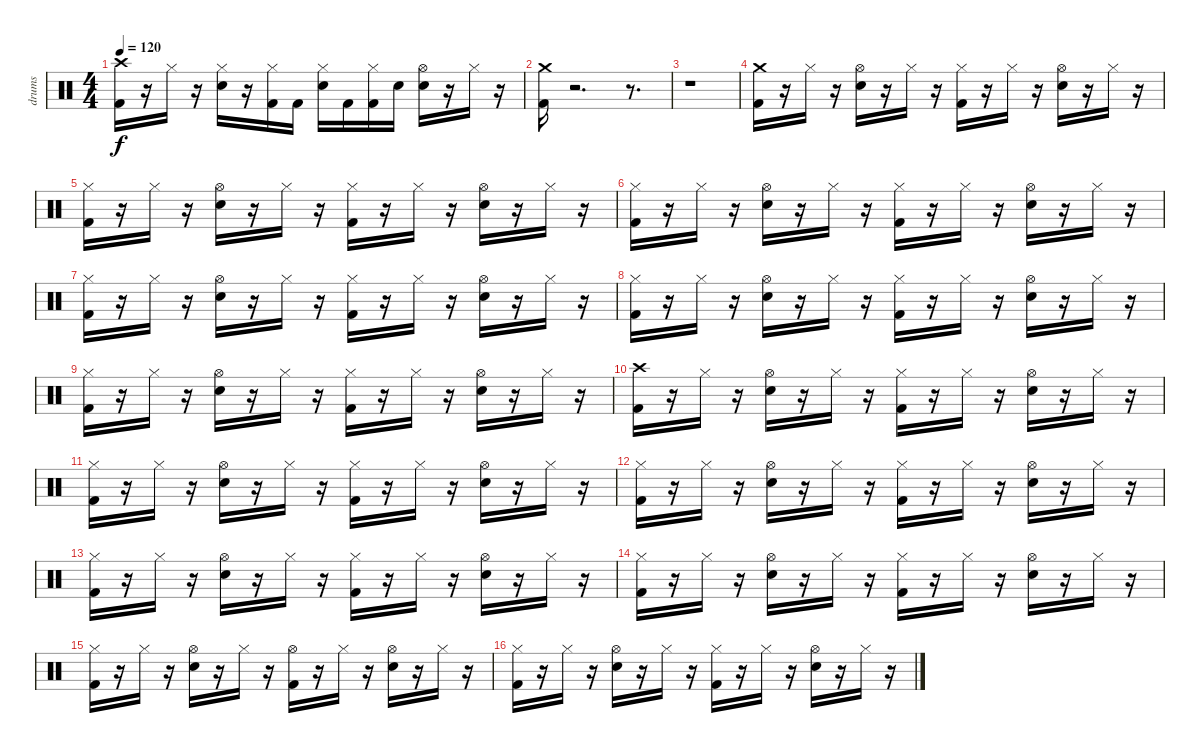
\track ("drums" "drums") {instrument percussion}
\staff {score}
\articulation defaults
\ts (4 4)
\tempo 120
\clef neutral
\ks c
("Crash high (hit)" "Kick (hit) 2").16{dy f} r.16 "Hi-Hat (closed)".16 r.16 ("Hi-Hat (closed)" "Snare (hit) 2").16 r.16 ("Hi-Hat (closed)" "Kick (hit) 2").16 "Kick (hit) 2".16 ("Hi-Hat (closed)" "Electric Snare (hit)").16 "Kick (hit) 2".16 ("Hi-Hat (closed)" "Kick (hit) 2").16 "Electric Snare (hit)".16 ("Hi-Hat (open)" "Electric Snare (hit)").16 r.16 "Hi-Hat (closed)".16 r.16 |
("Crash medium (hit)" "Kick (hit) 2").16 r.2{d} r.8{d} |
r.1 |
("Crash medium (hit)" "Kick (hit) 2").16 r.16 "Hi-Hat (closed)".16 r.16 ("Hi-Hat (open)" "Electric Snare (hit)").16 r.16 "Hi-Hat (closed)".16 r.16 ("Hi-Hat (closed)" "Kick (hit) 2").16 r.16 "Hi-Hat (closed)".16 r.16 ("Electric Snare (hit)" "Hi-Hat (open)").16 r.16 "Hi-Hat (closed)".16 r.16 |
("Hi-Hat (closed)" "Kick (hit) 2").16 r.16 "Hi-Hat (closed)".16 r.16 ("Hi-Hat (open)" "Electric Snare (hit)").16 r.16 "Hi-Hat (closed)".16 r.16 ("Hi-Hat (closed)" "Kick (hit) 2").16 r.16 "Hi-Hat (closed)".16 r.16 ("Hi-Hat (open)" "Electric Snare (hit)").16 r.16 "Hi-Hat (closed)".16 r.16 |
("Hi-Hat (closed)" "Kick (hit) 2").16 r.16 "Hi-Hat (closed)".16 r.16 ("Hi-Hat (open)" "Electric Snare (hit)").16 r.16 "Hi-Hat (closed)".16 r.16 ("Hi-Hat (closed)" "Kick (hit) 2").16 r.16 "Hi-Hat (closed)".16 r.16 ("Hi-Hat (open)" "Snare (hit) 2").16 r.16 "Hi-Hat (closed)".16 r.16 |
("Hi-Hat (closed)" "Kick (hit) 2").16 r.16 "Hi-Hat (closed)".16 r.16 ("Hi-Hat (open)" "Electric Snare (hit)").16 r.16 "Hi-Hat (closed)".16 r.16 ("Hi-Hat (closed)" "Kick (hit) 2").16 r.16 "Hi-Hat (closed)".16 r.16 ("Hi-Hat (open)" "Electric Snare (hit)").16 r.16 "Hi-Hat (closed)".16 r.16 |
("Hi-Hat (closed)" "Kick (hit) 2").16 r.16 "Hi-Hat (closed)".16 r.16 ("Hi-Hat (open)" "Snare (hit) 2").16 r.16 "Hi-Hat (closed)".16 r.16 ("Hi-Hat (closed)" "Kick (hit) 2").16 r.16 "Hi-Hat (closed)".16 r.16 ("Hi-Hat (open)" "Snare (hit) 2").16 r.16 "Hi-Hat (closed)".16 r.16 |
("Hi-Hat (closed)" "Kick (hit) 2").16 r.16 "Hi-Hat (closed)".16 r.16 ("Hi-Hat (open)" "Snare (hit) 2").16 r.16 "Hi-Hat (closed)".16 r.16 ("Hi-Hat (closed)" "Kick (hit) 2").16 r.16 "Hi-Hat (closed)".16 r.16 ("Hi-Hat (open)" "Snare (hit) 2").16 r.16 "Hi-Hat (closed)".16 r.16 |
("Crash high (hit)" "Kick (hit) 2").16 r.16 "Hi-Hat (closed)".16 r.16 ("Hi-Hat (open)" "Electric Snare (hit)").16 r.16 "Hi-Hat (closed)".16 r.16 ("Hi-Hat (closed)" "Kick (hit) 2").16 r.16 "Hi-Hat (closed)".16 r.16 ("Hi-Hat (open)" "Snare (hit) 2").16 r.16 "Hi-Hat (closed)".16 r.16 |
("Hi-Hat (closed)" "Kick (hit) 2").16 r.16 "Hi-Hat (closed)".16 r.16 ("Hi-Hat (open)" "Snare (hit) 2").16 r.16 "Hi-Hat (closed)".16 r.16 ("Hi-Hat (closed)" "Kick (hit) 2").16 r.16 "Hi-Hat (closed)".16 r.16 ("Hi-Hat (open)" "Snare (hit) 2").16 r.16 "Hi-Hat (closed)".16 r.16 |
("Hi-Hat (closed)" "Kick (hit) 2").16 r.16 "Hi-Hat (closed)".16 r.16 ("Hi-Hat (open)" "Electric Snare (hit)").16 r.16 "Hi-Hat (closed)".16 r.16 ("Hi-Hat (closed)" "Kick (hit) 2").16 r.16 "Hi-Hat (closed)".16 r.16 ("Hi-Hat (open)" "Electric Snare (hit)").16 r.16 "Hi-Hat (closed)".16 r.16 |
("Hi-Hat (closed)" "Kick (hit) 2").16 r.16 "Hi-Hat (closed)".16 r.16 ("Hi-Hat (open)" "Snare (hit) 2").16 r.16 "Hi-Hat (closed)".16 r.16 ("Hi-Hat (closed)" "Kick (hit) 2").16 r.16 "Hi-Hat (closed)".16 r.16 ("Hi-Hat (open)" "Electric Snare (hit)").16 r.16 "Hi-Hat (closed)".16 r.16 |
("Hi-Hat (closed)" "Kick (hit) 2").16 r.16 "Hi-Hat (closed)".16 r.16 ("Hi-Hat (open)" "Snare (hit) 2").16 r.16 "Hi-Hat (closed)".16 r.16 ("Hi-Hat (closed)" "Kick (hit) 2").16 r.16 "Hi-Hat (closed)".16 r.16 ("Hi-Hat (open)" "Electric Snare (hit)").16 r.16 "Hi-Hat (closed)".16 r.16 |
("Hi-Hat (closed)" "Kick (hit) 2").16 r.16 "Hi-Hat (closed)".16 r.16 ("Hi-Hat (open)" "Snare (hit) 2").16 r.16 "Hi-Hat (closed)".16 r.16 ("Hi-Hat (open)" "Kick (hit) 2").16 r.16 "Hi-Hat (closed)".16 r.16 ("Hi-Hat (open)" "Electric Snare (hit)").16 r.16 "Hi-Hat (closed)".16 r.16 |
("Hi-Hat (closed)" "Kick (hit) 2").16 r.16 "Hi-Hat (closed)".16 r.16 ("Hi-Hat (open)" "Snare (hit) 2").16 r.16 "Hi-Hat (closed)".16 r.16 ("Hi-Hat (closed)" "Kick (hit) 2").16 r.16 "Hi-Hat (closed)".16 r.16 ("Hi-Hat (open)" "Snare (hit) 2").16 r.16 "Hi-Hat (closed)".16 r.16
